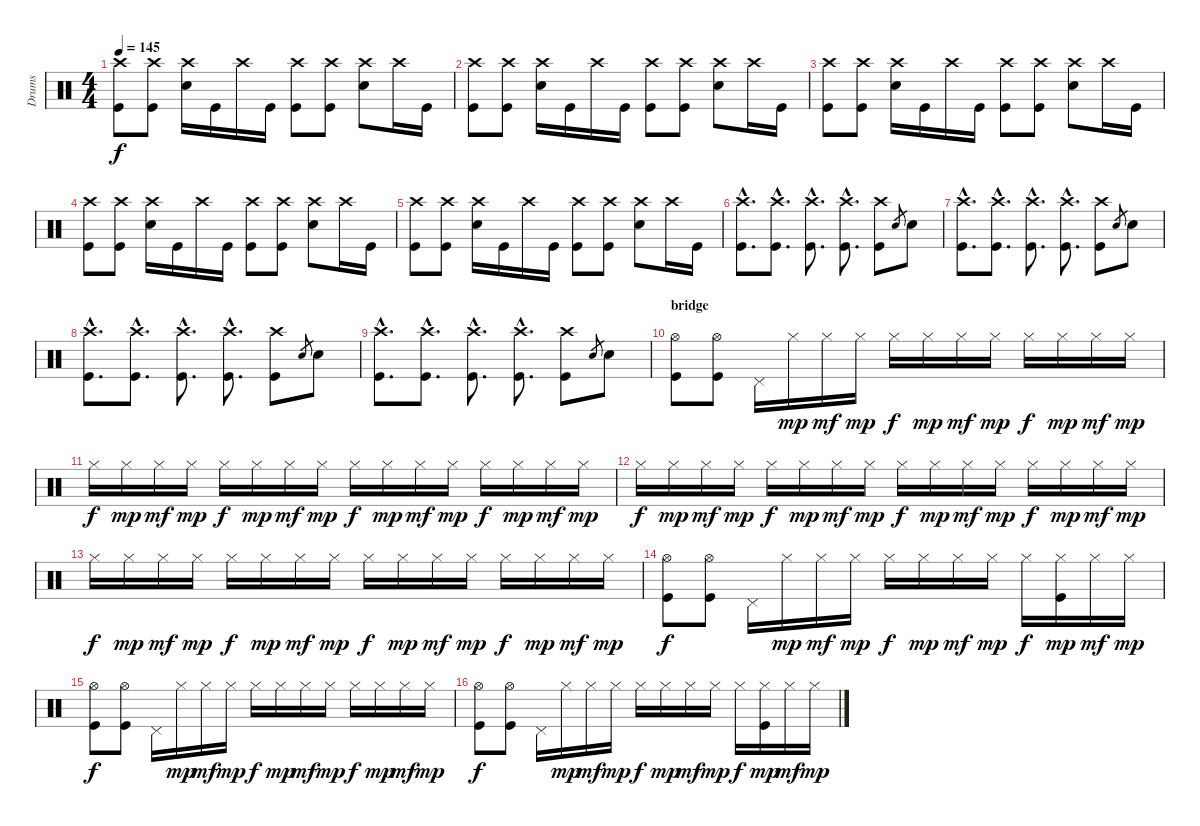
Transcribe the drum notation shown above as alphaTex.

\track ("Drums" "Drums") {instrument percussion}
\staff {score}
\articulation defaults
\ts (4 4)
\tempo 145
\clef neutral
\ks c
("Crash high (hit)" "Kick (hit)").8{dy f} ("Crash high (hit)" "Kick (hit)").8 ("Crash high (hit)" "Electric Snare (hit)").16 "Kick (hit)".16 "Crash high (hit)".16 "Kick (hit)".16 ("Crash high (hit)" "Kick (hit)").8 ("Crash high (hit)" "Kick (hit)").8 ("Crash high (hit)" "Electric Snare (hit)").8 "Crash high (hit)".16 "Kick (hit)".16 |
("Crash high (hit)" "Kick (hit)").8 ("Crash high (hit)" "Kick (hit)").8 ("Crash high (hit)" "Electric Snare (hit)").16 "Kick (hit)".16 "Crash high (hit)".16 "Kick (hit)".16 ("Crash high (hit)" "Kick (hit)").8 ("Crash high (hit)" "Kick (hit)").8 ("Crash high (hit)" "Electric Snare (hit)").8 "Crash high (hit)".16 "Kick (hit)".16 |
("Crash high (hit)" "Kick (hit)").8 ("Crash high (hit)" "Kick (hit)").8 ("Crash high (hit)" "Electric Snare (hit)").16 "Kick (hit)".16 "Crash high (hit)".16 "Kick (hit)".16 ("Crash high (hit)" "Kick (hit)").8 ("Crash high (hit)" "Kick (hit)").8 ("Crash high (hit)" "Electric Snare (hit)").8 "Crash high (hit)".16 "Kick (hit)".16 |
("Crash high (hit)" "Kick (hit)").8 ("Crash high (hit)" "Kick (hit)").8 ("Crash high (hit)" "Electric Snare (hit)").16 "Kick (hit)".16 "Crash high (hit)".16 "Kick (hit)".16 ("Crash high (hit)" "Kick (hit)").8 ("Crash high (hit)" "Kick (hit)").8 ("Crash high (hit)" "Electric Snare (hit)").8 "Crash high (hit)".16 "Kick (hit)".16 |
("Crash high (hit)" "Kick (hit)").8 ("Crash high (hit)" "Kick (hit)").8 ("Crash high (hit)" "Electric Snare (hit)").16 "Kick (hit)".16 "Crash high (hit)".16 "Kick (hit)".16 ("Crash high (hit)" "Kick (hit)").8 ("Crash high (hit)" "Kick (hit)").8 ("Crash high (hit)" "Electric Snare (hit)").8 "Crash high (hit)".16 "Kick (hit)".16 |
("Crash high (hit)"{hac} "Kick (hit)"{hac}).8{d} ("Crash high (hit)"{hac} "Kick (hit)"{hac}).8{d} ("Crash high (hit)"{hac} "Kick (hit)"{hac}).8{d} ("Crash high (hit)"{hac} "Kick (hit)"{hac}).8{d} ("Crash high (hit)" "Kick (hit)").8 "Electric Snare (hit)".8{gr} "Electric Snare (hit)".8 |
("Crash high (hit)"{hac} "Kick (hit)"{hac}).8{d} ("Crash high (hit)"{hac} "Kick (hit)"{hac}).8{d} ("Crash high (hit)"{hac} "Kick (hit)"{hac}).8{d} ("Crash high (hit)"{hac} "Kick (hit)"{hac}).8{d} ("Crash high (hit)" "Kick (hit)").8 "Electric Snare (hit)".8{gr} "Electric Snare (hit)".8 |
("Crash high (hit)"{hac} "Kick (hit)"{hac}).8{d} ("Crash high (hit)"{hac} "Kick (hit)"{hac}).8{d} ("Crash high (hit)"{hac} "Kick (hit)"{hac}).8{d} ("Crash high (hit)"{hac} "Kick (hit)"{hac}).8{d} ("Crash high (hit)" "Kick (hit)").8 "Electric Snare (hit)".8{gr} "Electric Snare (hit)".8 |
("Crash high (hit)"{hac} "Kick (hit)"{hac}).8{d} ("Crash high (hit)"{hac} "Kick (hit)"{hac}).8{d} ("Crash high (hit)"{hac} "Kick (hit)"{hac}).8{d} ("Crash high (hit)"{hac} "Kick (hit)"{hac}).8{d} ("Crash high (hit)" "Kick (hit)").8 "Electric Snare (hit)".8{gr} "Electric Snare (hit)".8 |
\section ("" "bridge")
("Hi-Hat (open)" "Kick (hit)").8 ("Hi-Hat (open)" "Kick (hit)").8 "Pedal Hi-Hat (hit)".16 "Hi-Hat (closed)".16{dy mp} "Hi-Hat (closed)".16{dy mf} "Hi-Hat (closed)".16{dy mp} "Hi-Hat (closed)".16{dy f} "Hi-Hat (closed)".16{dy mp} "Hi-Hat (closed)".16{dy mf} "Hi-Hat (closed)".16{dy mp} "Hi-Hat (closed)".16{dy f} "Hi-Hat (closed)".16{dy mp} "Hi-Hat (closed)".16{dy mf} "Hi-Hat (closed)".16{dy mp} |
"Hi-Hat (closed)".16{dy f} "Hi-Hat (closed)".16{dy mp} "Hi-Hat (closed)".16{dy mf} "Hi-Hat (closed)".16{dy mp} "Hi-Hat (closed)".16{dy f} "Hi-Hat (closed)".16{dy mp} "Hi-Hat (closed)".16{dy mf} "Hi-Hat (closed)".16{dy mp} "Hi-Hat (closed)".16{dy f} "Hi-Hat (closed)".16{dy mp} "Hi-Hat (closed)".16{dy mf} "Hi-Hat (closed)".16{dy mp} "Hi-Hat (closed)".16{dy f} "Hi-Hat (closed)".16{dy mp} "Hi-Hat (closed)".16{dy mf} "Hi-Hat (closed)".16{dy mp} |
"Hi-Hat (closed)".16{dy f} "Hi-Hat (closed)".16{dy mp} "Hi-Hat (closed)".16{dy mf} "Hi-Hat (closed)".16{dy mp} "Hi-Hat (closed)".16{dy f} "Hi-Hat (closed)".16{dy mp} "Hi-Hat (closed)".16{dy mf} "Hi-Hat (closed)".16{dy mp} "Hi-Hat (closed)".16{dy f} "Hi-Hat (closed)".16{dy mp} "Hi-Hat (closed)".16{dy mf} "Hi-Hat (closed)".16{dy mp} "Hi-Hat (closed)".16{dy f} "Hi-Hat (closed)".16{dy mp} "Hi-Hat (closed)".16{dy mf} "Hi-Hat (closed)".16{dy mp} |
"Hi-Hat (closed)".16{dy f} "Hi-Hat (closed)".16{dy mp} "Hi-Hat (closed)".16{dy mf} "Hi-Hat (closed)".16{dy mp} "Hi-Hat (closed)".16{dy f} "Hi-Hat (closed)".16{dy mp} "Hi-Hat (closed)".16{dy mf} "Hi-Hat (closed)".16{dy mp} "Hi-Hat (closed)".16{dy f} "Hi-Hat (closed)".16{dy mp} "Hi-Hat (closed)".16{dy mf} "Hi-Hat (closed)".16{dy mp} "Hi-Hat (closed)".16{dy f} "Hi-Hat (closed)".16{dy mp} "Hi-Hat (closed)".16{dy mf} "Hi-Hat (closed)".16{dy mp} |
("Hi-Hat (open)" "Kick (hit)").8{dy f} ("Hi-Hat (open)" "Kick (hit)").8 "Pedal Hi-Hat (hit)".16 "Hi-Hat (closed)".16{dy mp} "Hi-Hat (closed)".16{dy mf} "Hi-Hat (closed)".16{dy mp} "Hi-Hat (closed)".16{dy f} "Hi-Hat (closed)".16{dy mp} "Hi-Hat (closed)".16{dy mf} "Hi-Hat (closed)".16{dy mp} "Hi-Hat (closed)".16{dy f} ("Hi-Hat (closed)" "Kick (hit)").16{dy mp} "Hi-Hat (closed)".16{dy mf} "Hi-Hat (closed)".16{dy mp} |
("Hi-Hat (open)" "Kick (hit)").8{dy f} ("Hi-Hat (open)" "Kick (hit)").8 "Pedal Hi-Hat (hit)".16 "Hi-Hat (closed)".16{dy mp} "Hi-Hat (closed)".16{dy mf} "Hi-Hat (closed)".16{dy mp} "Hi-Hat (closed)".16{dy f} "Hi-Hat (closed)".16{dy mp} "Hi-Hat (closed)".16{dy mf} "Hi-Hat (closed)".16{dy mp} "Hi-Hat (closed)".16{dy f} "Hi-Hat (closed)".16{dy mp} "Hi-Hat (closed)".16{dy mf} "Hi-Hat (closed)".16{dy mp} |
("Hi-Hat (open)" "Kick (hit)").8{dy f} ("Hi-Hat (open)" "Kick (hit)").8 "Pedal Hi-Hat (hit)".16 "Hi-Hat (closed)".16{dy mp} "Hi-Hat (closed)".16{dy mf} "Hi-Hat (closed)".16{dy mp} "Hi-Hat (closed)".16{dy f} "Hi-Hat (closed)".16{dy mp} "Hi-Hat (closed)".16{dy mf} "Hi-Hat (closed)".16{dy mp} "Hi-Hat (closed)".16{dy f} ("Hi-Hat (closed)" "Kick (hit)").16{dy mp} "Hi-Hat (closed)".16{dy mf} "Hi-Hat (closed)".16{dy mp}
